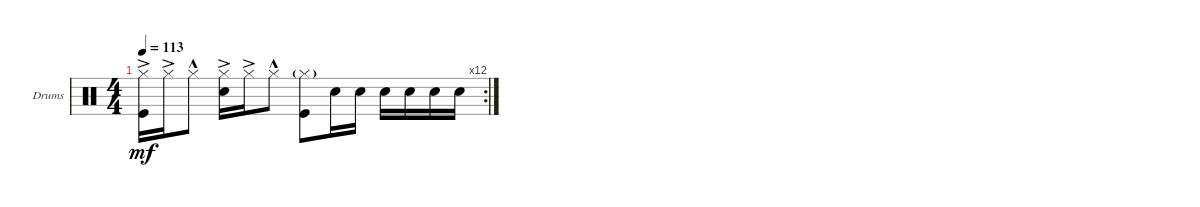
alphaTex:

\defaultSystemsLayout 4
\bracketExtendMode groupsimilarinstruments
\firstSystemTrackNameOrientation horizontal
\otherSystemsTrackNameOrientation horizontal
\track ("Drumkit" "Drums") {instrument percussion}
\staff {score}
\articulation defaults
\rc 12
\ts (4 4)
\tempo 113
\clef neutral
\ks c
("Kick (hit)" "Hi-Hat (closed)"{ac}).16{dy mf} "Hi-Hat (closed)"{ac}.16 "Hi-Hat (closed)"{hac}.8 ("Hi-Hat (closed)"{ac} "Snare (hit) 2").16 "Hi-Hat (closed)"{ac}.16 "Hi-Hat (closed)"{hac}.8 ("Kick (hit)" "Hi-Hat (closed)"{g}).8 "Snare (hit) 2".16 "Snare (hit) 2".16 "Snare (hit) 2".16 "Snare (hit) 2".16 "Snare (hit) 2".16 "Snare (hit) 2".16
